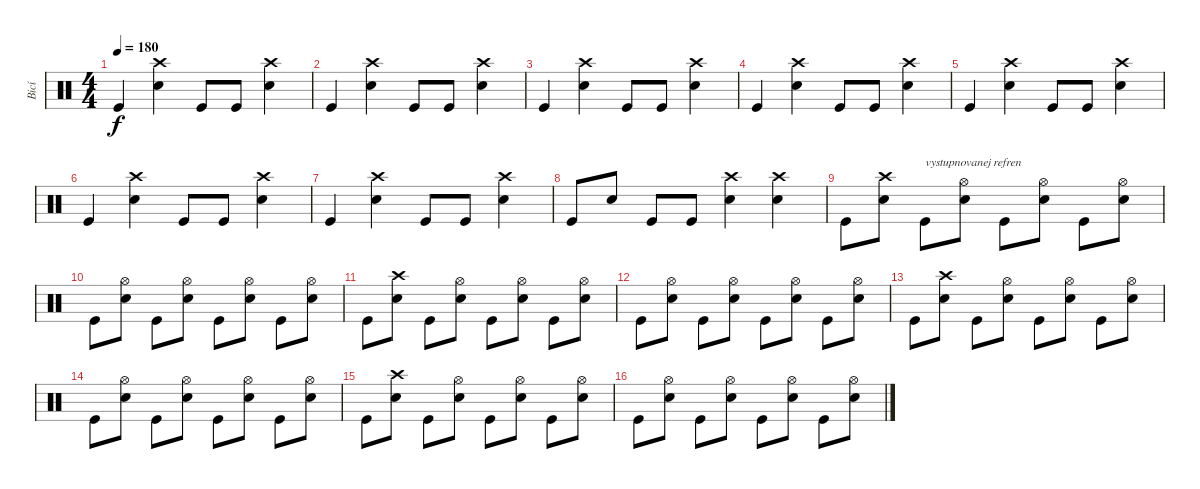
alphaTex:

\track ("Bicí" "Bicí") {instrument percussion}
\staff {score}
\articulation defaults
\ts (4 4)
\tempo 180
\clef neutral
\ks c "Kick (hit)".4{dy f}
("Snare (hit) 2" "Crash high (hit)").4 "Kick (hit)".8 "Kick (hit)".8 ("Snare (hit) 2" "Crash high (hit)").4 |
"Kick (hit)".4 ("Snare (hit) 2" "Crash high (hit)").4 "Kick (hit)".8 "Kick (hit)".8 ("Snare (hit) 2" "Crash high (hit)").4 |
"Kick (hit)".4 ("Snare (hit) 2" "Crash high (hit)").4 "Kick (hit)".8 "Kick (hit)".8 ("Snare (hit) 2" "Crash high (hit)").4 |
"Kick (hit)".4 ("Snare (hit) 2" "Crash high (hit)").4 "Kick (hit)".8 "Kick (hit)".8 ("Snare (hit) 2" "Crash high (hit)").4 |
"Kick (hit)".4 ("Snare (hit) 2" "Crash high (hit)").4 "Kick (hit)".8 "Kick (hit)".8 ("Snare (hit) 2" "Crash high (hit)").4 |
"Kick (hit)".4 ("Snare (hit) 2" "Crash high (hit)").4 "Kick (hit)".8 "Kick (hit)".8 ("Snare (hit) 2" "Crash high (hit)").4 |
"Kick (hit)".4 ("Snare (hit) 2" "Crash high (hit)").4 "Kick (hit)".8 "Kick (hit)".8 ("Snare (hit) 2" "Crash high (hit)").4 |
"Kick (hit)".8 "Snare (hit) 2".8 "Kick (hit)".8 "Kick (hit)".8 ("Snare (hit) 2" "Crash high (hit)").4 ("Snare (hit) 2" "Crash high (hit)").4 |
"Kick (hit)".8 ("Snare (hit) 2" "Crash high (hit)").8 "Kick (hit)".8{txt "vystupnovanej refren"} ("Snare (hit) 2" "Hi-Hat (open)").8 "Kick (hit)".8 ("Snare (hit) 2" "Hi-Hat (open)").8 "Kick (hit)".8 ("Snare (hit) 2" "Hi-Hat (open)").8 |
"Kick (hit)".8 ("Snare (hit) 2" "Hi-Hat (open)").8 "Kick (hit)".8 ("Snare (hit) 2" "Hi-Hat (open)").8 "Kick (hit)".8 ("Snare (hit) 2" "Hi-Hat (open)").8 "Kick (hit)".8 ("Snare (hit) 2" "Hi-Hat (open)").8 |
"Kick (hit)".8 ("Snare (hit) 2" "Crash high (hit)").8 "Kick (hit)".8 ("Snare (hit) 2" "Hi-Hat (open)").8 "Kick (hit)".8 ("Snare (hit) 2" "Hi-Hat (open)").8 "Kick (hit)".8 ("Snare (hit) 2" "Hi-Hat (open)").8 |
"Kick (hit)".8 ("Snare (hit) 2" "Hi-Hat (open)").8 "Kick (hit)".8 ("Snare (hit) 2" "Hi-Hat (open)").8 "Kick (hit)".8 ("Snare (hit) 2" "Hi-Hat (open)").8 "Kick (hit)".8 ("Snare (hit) 2" "Hi-Hat (open)").8 |
"Kick (hit)".8 ("Snare (hit) 2" "Crash high (hit)").8 "Kick (hit)".8 ("Snare (hit) 2" "Hi-Hat (open)").8 "Kick (hit)".8 ("Snare (hit) 2" "Hi-Hat (open)").8 "Kick (hit)".8 ("Snare (hit) 2" "Hi-Hat (open)").8 |
"Kick (hit)".8 ("Snare (hit) 2" "Hi-Hat (open)").8 "Kick (hit)".8 ("Snare (hit) 2" "Hi-Hat (open)").8 "Kick (hit)".8 ("Snare (hit) 2" "Hi-Hat (open)").8 "Kick (hit)".8 ("Snare (hit) 2" "Hi-Hat (open)").8 |
"Kick (hit)".8 ("Snare (hit) 2" "Crash high (hit)").8 "Kick (hit)".8 ("Snare (hit) 2" "Hi-Hat (open)").8 "Kick (hit)".8 ("Snare (hit) 2" "Hi-Hat (open)").8 "Kick (hit)".8 ("Snare (hit) 2" "Hi-Hat (open)").8 |
"Kick (hit)".8 ("Snare (hit) 2" "Hi-Hat (open)").8 "Kick (hit)".8 ("Snare (hit) 2" "Hi-Hat (open)").8 "Kick (hit)".8 ("Snare (hit) 2" "Hi-Hat (open)").8 "Kick (hit)".8 ("Snare (hit) 2" "Hi-Hat (open)").8
